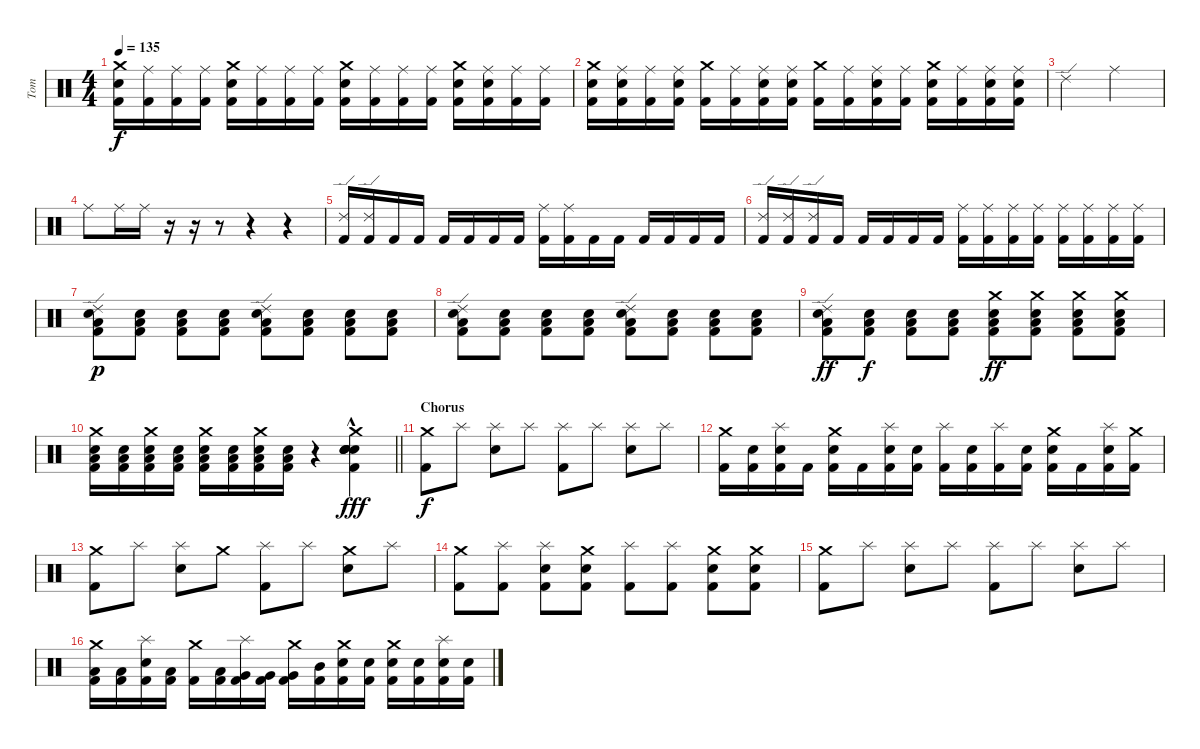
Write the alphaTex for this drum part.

\track ("Tom" "Tom") {instrument percussion}
\staff {score}
\articulation defaults
\ts (4 4)
\tempo 135
\clef neutral
\ks c
("Crash medium (hit)" "Electric Snare (hit)" "Kick (hit) 2").16{dy f} ("Ride (middle)" "Kick (hit) 2").16 ("Ride (middle)" "Kick (hit) 2").16 ("Ride (middle)" "Kick (hit) 2").16 ("Crash medium (hit)" "Electric Snare (hit)" "Kick (hit) 2").16 ("Ride (middle)" "Kick (hit) 2").16 ("Ride (middle)" "Kick (hit) 2").16 ("Ride (middle)" "Kick (hit) 2").16 ("Crash medium (hit)" "Electric Snare (hit)" "Kick (hit) 2").16 ("Ride (middle)" "Kick (hit) 2").16 ("Ride (middle)" "Kick (hit) 2").16 ("Ride (middle)" "Kick (hit) 2").16 ("Crash medium (hit)" "Electric Snare (hit)" "Kick (hit) 2").16 ("Ride (middle)" "Electric Snare (hit)" "Kick (hit) 2").16 ("Ride (middle)" "Kick (hit) 2").16 ("Ride (middle)" "Kick (hit) 2").16 |
("Crash medium (hit)" "Electric Snare (hit)" "Kick (hit) 2").16 ("Ride (middle)" "Electric Snare (hit)" "Kick (hit) 2").16 ("Ride (middle)" "Kick (hit) 2").16 ("Ride (middle)" "Electric Snare (hit)" "Kick (hit) 2").16 ("Crash medium (hit)" "Kick (hit) 2").16 ("Ride (middle)" "Kick (hit) 2").16 ("Ride (middle)" "Electric Snare (hit)" "Kick (hit) 2").16 ("Ride (middle)" "Electric Snare (hit)" "Kick (hit) 2").16 ("Crash medium (hit)" "Kick (hit) 2").16 ("Ride (middle)" "Kick (hit) 2").16 ("Ride (middle)" "Electric Snare (hit)" "Kick (hit) 2").16 ("Ride (middle)" "Kick (hit) 2").16 ("Crash medium (hit)" "Electric Snare (hit)" "Kick (hit) 2").16 ("Ride (middle)" "Kick (hit) 2").16 ("Ride (middle)" "Electric Snare (hit)" "Kick (hit) 2").16 ("Ride (middle)" "Electric Snare (hit)" "Kick (hit) 2").16 |
"Ride (edge) 2".2 "Ride (middle)".2 |
"Ride (middle)".8 "Ride (middle)".16 "Ride (middle)".16 r.16 r.16 r.8 r.4 r.4 |
("Ride (edge) 2" "Kick (hit) 2").16 ("Ride (edge) 2" "Kick (hit) 2").16 "Kick (hit) 2".16 "Kick (hit) 2".16 "Kick (hit) 2".16 "Kick (hit) 2".16 "Kick (hit) 2".16 "Kick (hit) 2".16 ("Ride (middle)" "Kick (hit) 2").16 ("Ride (middle)" "Kick (hit) 2").16 "Kick (hit) 2".16 "Kick (hit) 2".16 "Kick (hit) 2".16 "Kick (hit) 2".16 "Kick (hit) 2".16 "Kick (hit) 2".16 |
("Ride (edge) 2" "Kick (hit) 2").16 ("Ride (edge) 2" "Kick (hit) 2").16 ("Ride (edge) 2" "Kick (hit) 2").16 "Kick (hit) 2".16 "Kick (hit) 2".16 "Kick (hit) 2".16 "Kick (hit) 2".16 "Kick (hit) 2".16 ("Ride (middle)" "Kick (hit) 2").16 ("Ride (middle)" "Kick (hit) 2").16 ("Ride (middle)" "Kick (hit) 2").16 ("Ride (middle)" "Kick (hit) 2").16 ("Ride (middle)" "Kick (hit) 2").16 ("Ride (middle)" "Kick (hit) 2").16 ("Ride (middle)" "Kick (hit) 2").16 ("Ride (middle)" "Kick (hit) 2").16 |
("Ride (edge) 2" "Electric Snare (hit)" "Low Floor Tom (hit)" "Kick (hit) 2").8{dy p} ("Electric Snare (hit)" "Low Floor Tom (hit)" "Kick (hit) 2").8 ("Electric Snare (hit)" "Low Floor Tom (hit)" "Kick (hit) 2").8 ("Electric Snare (hit)" "Low Floor Tom (hit)" "Kick (hit) 2").8 ("Ride (edge) 2" "Electric Snare (hit)" "Low Floor Tom (hit)" "Kick (hit) 2").8 ("Electric Snare (hit)" "Low Floor Tom (hit)" "Kick (hit) 2").8 ("Electric Snare (hit)" "Low Floor Tom (hit)" "Kick (hit) 2").8 ("Electric Snare (hit)" "Low Floor Tom (hit)" "Kick (hit) 2").8 |
("Ride (edge) 2" "Electric Snare (hit)" "Low Floor Tom (hit)" "Kick (hit) 2").8 ("Electric Snare (hit)" "Low Floor Tom (hit)" "Kick (hit) 2").8 ("Electric Snare (hit)" "Low Floor Tom (hit)" "Kick (hit) 2").8 ("Electric Snare (hit)" "Low Floor Tom (hit)" "Kick (hit) 2").8 ("Ride (edge) 2" "Electric Snare (hit)" "Low Floor Tom (hit)" "Kick (hit) 2").8 ("Electric Snare (hit)" "Low Floor Tom (hit)" "Kick (hit) 2").8 ("Electric Snare (hit)" "Low Floor Tom (hit)" "Kick (hit) 2").8 ("Electric Snare (hit)" "Low Floor Tom (hit)" "Kick (hit) 2").8 |
("Ride (edge) 2" "Electric Snare (hit)" "Low Floor Tom (hit)" "Kick (hit) 2").8{dy ff} ("Electric Snare (hit)" "Low Floor Tom (hit)" "Kick (hit) 2").8{dy f} ("Electric Snare (hit)" "Low Floor Tom (hit)" "Kick (hit) 2").8 ("Electric Snare (hit)" "Low Floor Tom (hit)" "Kick (hit) 2").8 ("Crash medium (hit)" "Electric Snare (hit)" "Low Floor Tom (hit)" "Kick (hit) 2").8{dy ff} ("Crash medium (hit)" "Electric Snare (hit)" "Low Floor Tom (hit)" "Kick (hit) 2").8 ("Crash medium (hit)" "Electric Snare (hit)" "Low Floor Tom (hit)" "Kick (hit) 2").8 ("Crash medium (hit)" "Electric Snare (hit)" "Low Floor Tom (hit)" "Kick (hit) 2").8 |
\barLineRight lightlight
("Crash medium (hit)" "Electric Snare (hit)" "Low Floor Tom (hit)" "Kick (hit) 2").16 ("Electric Snare (hit)" "Low Floor Tom (hit)" "Kick (hit) 2").16 ("Crash medium (hit)" "Electric Snare (hit)" "Low Floor Tom (hit)" "Kick (hit) 2").16 ("Electric Snare (hit)" "Low Floor Tom (hit)" "Kick (hit) 2").16 ("Crash medium (hit)" "Electric Snare (hit)" "Low Floor Tom (hit)" "Kick (hit) 2").16 ("Electric Snare (hit)" "Low Floor Tom (hit)" "Kick (hit) 2").16 ("Crash medium (hit)" "Electric Snare (hit)" "Low Floor Tom (hit)" "Kick (hit) 2").16 ("Electric Snare (hit)" "Low Floor Tom (hit)" "Kick (hit) 2").16 r.4 ("Crash medium (hit)"{hac} "Electric Snare (hit)"{hac} "Electric Snare (hit)"{hac} "Electric Snare (hit)"{hac} "Electric Snare (hit)"{hac} "Kick (hit) 2"{hac}).4{dy fff} |
\section ("" "Chorus")
("Crash medium (hit)" "Kick (hit) 2").8{dy f} "Splash (hit)".8 ("Splash (hit)" "Electric Snare (hit)").8 "Splash (hit)".8 ("Splash (hit)" "Kick (hit) 2").8 "Splash (hit)".8 ("Splash (hit)" "Electric Snare (hit)").8 "Splash (hit)".8 |
("Crash medium (hit)" "Kick (hit) 2").16 ("Electric Snare (hit)" "Kick (hit) 2").16 ("Splash (hit)" "Electric Snare (hit)" "Kick (hit) 2").16 "Kick (hit) 2".16 ("Crash medium (hit)" "Electric Snare (hit)" "Kick (hit) 2").16 "Kick (hit) 2".16 ("Splash (hit)" "Electric Snare (hit)" "Kick (hit) 2").16 ("Electric Snare (hit)" "Kick (hit) 2").16 ("Splash (hit)" "Kick (hit) 2").16 ("Electric Snare (hit)" "Kick (hit) 2").16 ("Splash (hit)" "Kick (hit) 2").16 ("Electric Snare (hit)" "Kick (hit) 2").16 ("Crash medium (hit)" "Electric Snare (hit)" "Kick (hit) 2").16 "Kick (hit) 2".16 ("Splash (hit)" "Electric Snare (hit)" "Kick (hit) 2").16 ("Crash medium (hit)" "Kick (hit) 2").16 |
("Crash medium (hit)" "Kick (hit) 2").8 "Splash (hit)".8 ("Splash (hit)" "Electric Snare (hit)").8 "Crash medium (hit)".8 ("Splash (hit)" "Kick (hit) 2").8 "Splash (hit)".8 ("Crash medium (hit)" "Electric Snare (hit)").8 "Splash (hit)".8 |
("Crash medium (hit)" "Kick (hit) 2").8 ("Splash (hit)" "Kick (hit) 2").8 ("Splash (hit)" "Electric Snare (hit)" "Kick (hit) 2").8 ("Crash medium (hit)" "Electric Snare (hit)" "Kick (hit) 2").8 ("Splash (hit)" "Kick (hit) 2").8 ("Splash (hit)" "Kick (hit) 2").8 ("Crash medium (hit)" "Electric Snare (hit)" "Kick (hit) 2").8 ("Crash medium (hit)" "Electric Snare (hit)" "Kick (hit) 2").8 |
("Crash medium (hit)" "Kick (hit) 2").8 "Splash (hit)".8 ("Splash (hit)" "Electric Snare (hit)").8 "Splash (hit)".8 ("Splash (hit)" "Kick (hit) 2").8 "Splash (hit)".8 ("Splash (hit)" "Electric Snare (hit)").8 "Splash (hit)".8 |
("Crash medium (hit)" "Low Floor Tom (hit)" "Kick (hit) 2").16 ("Low Floor Tom (hit)" "Kick (hit) 2").16 ("Splash (hit)" "Electric Snare (hit)" "Kick (hit) 2").16 ("Low Floor Tom (hit)" "Kick (hit) 2").16 ("Crash medium (hit)" "Kick (hit) 2").16 ("Low Floor Tom (hit)" "Kick (hit) 2").16 ("Splash (hit)" "Very Low Tom (hit)" "Kick (hit) 2").16 ("Very Low Tom (hit)" "Kick (hit) 2").16 ("Crash medium (hit)" "Very Low Tom (hit)" "Kick (hit) 2").16 ("Mid Tom (hit)" "Kick (hit) 2").16 ("Crash medium (hit)" "Electric Snare (hit)" "Kick (hit) 2").16 ("Electric Snare (hit)" "Kick (hit) 2").16 ("Crash medium (hit)" "Electric Snare (hit)" "Kick (hit) 2").16 ("Electric Snare (hit)" "Kick (hit) 2").16 ("Splash (hit)" "Electric Snare (hit)" "Kick (hit) 2").16 ("Electric Snare (hit)" "Kick (hit) 2").16
